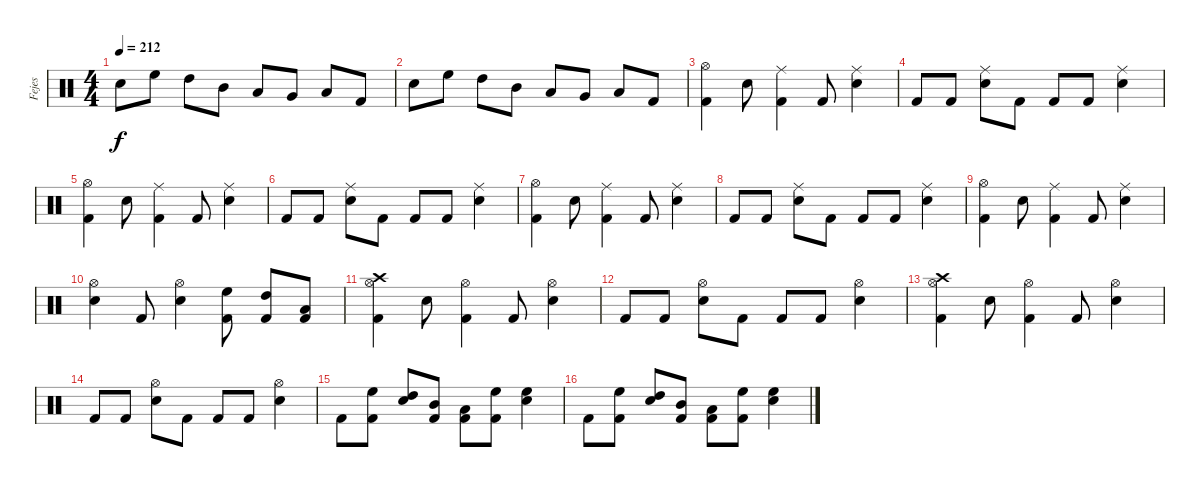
\track ("Fejes" "Fejes") {instrument percussion}
\staff {score}
\articulation defaults
\ts (4 4)
\tempo 212
\clef neutral
\ks c "Snare (hit) 2".8{dy f} "High Floor Tom (hit)".8 "High Tom (hit)".8 "Mid Tom (hit)".8 "Low Tom (hit)".8 "Very Low Tom (hit)".8 "Low Floor Tom (hit)".8 "Kick (hit) 2".8
|
"Snare (hit) 2".8 "High Floor Tom (hit)".8 "High Tom (hit)".8 "Mid Tom (hit)".8 "Low Tom (hit)".8 "Very Low Tom (hit)".8 "Low Floor Tom (hit)".8 "Kick (hit) 2".8 |
("Hi-Hat (open)" "Kick (hit) 2").4 "Snare (hit) 2".8 ("Ride (middle)" "Kick (hit) 2").4 "Kick (hit) 2".8 ("Ride (middle)" "Snare (hit) 2").4 |
"Kick (hit) 2".8 "Kick (hit) 2".8 ("Ride (middle)" "Snare (hit) 2").8 "Kick (hit) 2".8 "Kick (hit) 2".8 "Kick (hit) 2".8 ("Ride (middle)" "Snare (hit) 2").4 |
("Hi-Hat (open)" "Kick (hit) 2").4 "Snare (hit) 2".8 ("Ride (middle)" "Kick (hit) 2").4 "Kick (hit) 2".8 ("Ride (middle)" "Snare (hit) 2").4 |
"Kick (hit) 2".8 "Kick (hit) 2".8 ("Ride (middle)" "Snare (hit) 2").8 "Kick (hit) 2".8 "Kick (hit) 2".8 "Kick (hit) 2".8 ("Ride (middle)" "Snare (hit) 2").4 |
("Hi-Hat (open)" "Kick (hit) 2").4 "Snare (hit) 2".8 ("Ride (middle)" "Kick (hit) 2").4 "Kick (hit) 2".8 ("Ride (middle)" "Snare (hit) 2").4 |
"Kick (hit) 2".8 "Kick (hit) 2".8 ("Ride (middle)" "Snare (hit) 2").8 "Kick (hit) 2".8 "Kick (hit) 2".8 "Kick (hit) 2".8 ("Ride (middle)" "Snare (hit) 2").4 |
("Hi-Hat (open)" "Kick (hit) 2").4 "Snare (hit) 2".8 ("Ride (middle)" "Kick (hit) 2").4 "Kick (hit) 2".8 ("Ride (middle)" "Snare (hit) 2").4 |
("Hi-Hat (open)" "Snare (hit) 2").4 "Kick (hit) 2".8 ("Hi-Hat (open)" "Snare (hit) 2").4 ("High Floor Tom (hit)" "Kick (hit) 2").8 ("High Tom (hit)" "Kick (hit) 2").8 ("Low Tom (hit)" "Kick (hit) 2").8 |
("Crash high (hit)" "Hi-Hat (open)" "Kick (hit) 2").4 "Snare (hit) 2".8 ("Hi-Hat (open)" "Kick (hit) 2").4 "Kick (hit) 2".8 ("Hi-Hat (open)" "Snare (hit) 2").4 |
"Kick (hit) 2".8 "Kick (hit) 2".8 ("Hi-Hat (open)" "Snare (hit) 2").8 "Kick (hit) 2".8 "Kick (hit) 2".8 "Kick (hit) 2".8 ("Hi-Hat (open)" "Snare (hit) 2").4 |
("Crash high (hit)" "Hi-Hat (open)" "Kick (hit) 2").4 "Snare (hit) 2".8 ("Hi-Hat (open)" "Kick (hit) 2").4 "Kick (hit) 2".8 ("Hi-Hat (open)" "Snare (hit) 2").4 |
"Kick (hit) 2".8 "Kick (hit) 2".8 ("Hi-Hat (open)" "Snare (hit) 2").8 "Kick (hit) 2".8 "Kick (hit) 2".8 "Kick (hit) 2".8 ("Hi-Hat (open)" "Snare (hit) 2").4 |
"Kick (hit) 2".8 ("High Floor Tom (hit)" "Kick (hit) 2").8 ("High Tom (hit)" "Snare (hit) 2").8 ("Mid Tom (hit)" "Kick (hit) 2").8 ("Low Tom (hit)" "Kick (hit) 2").8 ("High Floor Tom (hit)" "Kick (hit) 2").8 ("High Floor Tom (hit)" "Snare (hit) 2").4 |
"Kick (hit) 2".8 ("High Floor Tom (hit)" "Kick (hit) 2").8 ("High Tom (hit)" "Snare (hit) 2").8 ("Mid Tom (hit)" "Kick (hit) 2").8 ("Low Tom (hit)" "Kick (hit) 2").8 ("High Floor Tom (hit)" "Kick (hit) 2").8 ("High Floor Tom (hit)" "Snare (hit) 2").4
